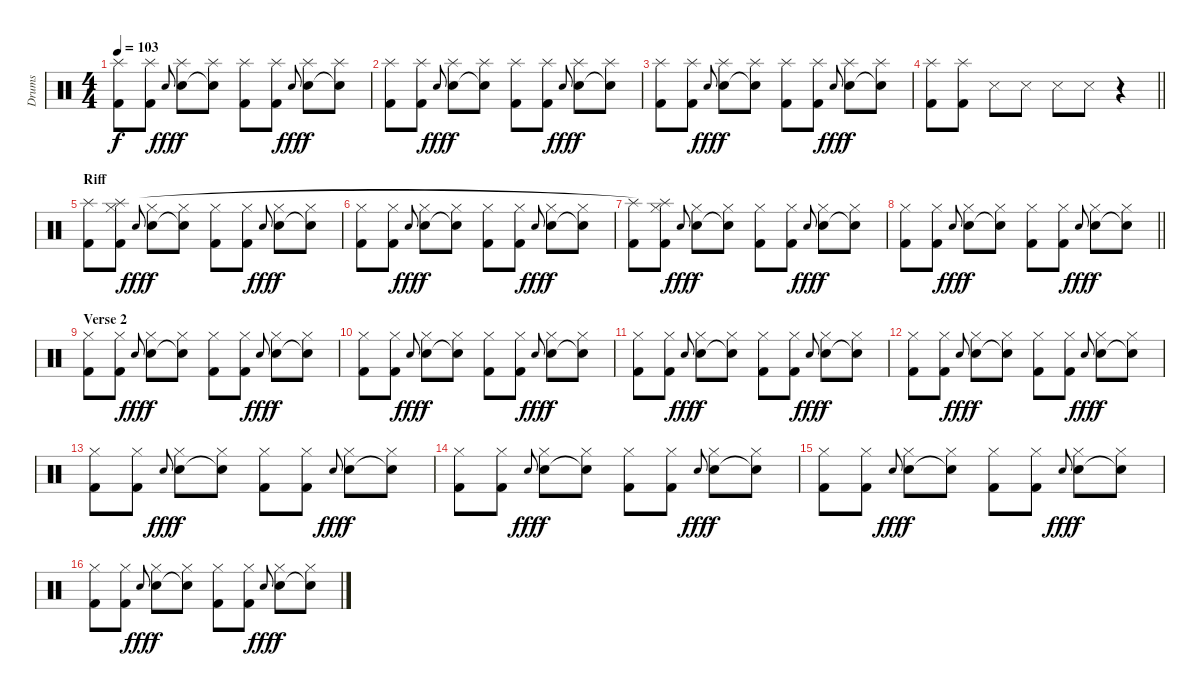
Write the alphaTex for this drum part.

\track ("Drums" "Drums") {instrument percussion}
\staff {score}
\articulation defaults
\ts (4 4)
\tempo 103
\clef neutral
\ks c
("Kick (hit) 2" "Splash (hit)").8{dy f} ("Kick (hit) 2" "Splash (hit)").8 "Snare (hit) 2"{h}.8{gr onbeat dy fff} ("Snare (hit) 2" "Splash (hit)").8{dy f} ("Snare (hit) 2"{t} "Splash (hit)").8 ("Kick (hit) 2" "Splash (hit)").8 ("Kick (hit) 2" "Splash (hit)").8 "Snare (hit) 2"{h}.8{gr onbeat dy fff} ("Snare (hit) 2" "Splash (hit)").8{dy f} ("Snare (hit) 2"{t} "Splash (hit)").8 |
("Kick (hit) 2" "Splash (hit)").8 ("Kick (hit) 2" "Splash (hit)").8 "Snare (hit) 2"{h}.8{gr onbeat dy fff} ("Snare (hit) 2" "Splash (hit)").8{dy f} ("Snare (hit) 2"{t} "Splash (hit)").8 ("Kick (hit) 2" "Splash (hit)").8 ("Kick (hit) 2" "Splash (hit)").8 "Snare (hit) 2"{h}.8{gr onbeat dy fff} ("Snare (hit) 2" "Splash (hit)").8{dy f} ("Snare (hit) 2"{t} "Splash (hit)").8 |
("Kick (hit) 2" "Splash (hit)").8 ("Kick (hit) 2" "Splash (hit)").8 "Snare (hit) 2"{h}.8{gr onbeat dy fff} ("Snare (hit) 2" "Splash (hit)").8{dy f} ("Snare (hit) 2"{t} "Splash (hit)").8 ("Kick (hit) 2" "Splash (hit)").8 ("Kick (hit) 2" "Splash (hit)").8 "Snare (hit) 2"{h}.8{gr onbeat dy fff} ("Snare (hit) 2" "Splash (hit)").8{dy f} ("Snare (hit) 2"{t} "Splash (hit)").8 |
\barLineRight lightlight
("Kick (hit) 2" "Splash (hit)").8 ("Kick (hit) 2" "Splash (hit)").8 "Metronome (hit)".8 "Metronome (hit)".8 "Metronome (hit)".8 "Metronome (hit)".8 r.4 |
\section ("" "Riff")
("Kick (hit) 2" "Splash (hit)").8 ("Kick (hit) 2" "Hi-Hat (closed)" "Splash (hit)").8 "Snare (hit) 2"{h}.8{gr onbeat dy fff} ("Snare (hit) 2" "Hi-Hat (closed)").8{dy f} ("Snare (hit) 2"{t} "Hi-Hat (closed)").8 ("Kick (hit) 2" "Hi-Hat (closed)").8 ("Kick (hit) 2" "Hi-Hat (closed)").8 "Snare (hit) 2"{h}.8{gr onbeat dy fff} ("Snare (hit) 2" "Hi-Hat (closed)").8{dy f} ("Snare (hit) 2"{t} "Hi-Hat (closed)").8 |
("Kick (hit) 2" "Hi-Hat (closed)").8 ("Kick (hit) 2" "Hi-Hat (closed)").8 "Snare (hit) 2"{h}.8{gr onbeat dy fff} ("Snare (hit) 2" "Hi-Hat (closed)").8{dy f} ("Snare (hit) 2"{t} "Hi-Hat (closed)").8 ("Kick (hit) 2" "Hi-Hat (closed)").8 ("Kick (hit) 2" "Hi-Hat (closed)").8 "Snare (hit) 2"{h}.8{gr onbeat dy fff} ("Snare (hit) 2" "Hi-Hat (closed)").8{dy f} ("Snare (hit) 2"{t} "Hi-Hat (closed)").8 |
("Kick (hit) 2" "Splash (hit)").8 ("Kick (hit) 2" "Hi-Hat (closed)" "Splash (hit)"{t}).8 "Snare (hit) 2"{h}.8{gr onbeat dy fff} ("Snare (hit) 2" "Hi-Hat (closed)").8{dy f} ("Snare (hit) 2"{t} "Hi-Hat (closed)").8 ("Kick (hit) 2" "Hi-Hat (closed)").8 ("Kick (hit) 2" "Hi-Hat (closed)").8 "Snare (hit) 2"{h}.8{gr onbeat dy fff} ("Snare (hit) 2" "Hi-Hat (closed)").8{dy f} ("Snare (hit) 2"{t} "Hi-Hat (closed)").8 |
\barLineRight lightlight
("Kick (hit) 2" "Hi-Hat (closed)").8 ("Kick (hit) 2" "Hi-Hat (closed)").8 "Snare (hit) 2"{h}.8{gr onbeat dy fff} ("Snare (hit) 2" "Hi-Hat (closed)").8{dy f} ("Snare (hit) 2"{t} "Hi-Hat (closed)").8 ("Kick (hit) 2" "Hi-Hat (closed)").8 ("Kick (hit) 2" "Hi-Hat (closed)").8 "Snare (hit) 2"{h}.8{gr onbeat dy fff} ("Snare (hit) 2" "Hi-Hat (closed)").8{dy f} ("Snare (hit) 2"{t} "Hi-Hat (closed)").8 |
\section ("" "Verse 2")
("Kick (hit) 2" "Hi-Hat (closed)").8 ("Kick (hit) 2" "Hi-Hat (closed)").8 "Snare (hit) 2"{h}.8{gr onbeat dy fff} ("Snare (hit) 2" "Hi-Hat (closed)").8{dy f} ("Snare (hit) 2"{t} "Hi-Hat (closed)").8 ("Kick (hit) 2" "Hi-Hat (closed)").8 ("Kick (hit) 2" "Hi-Hat (closed)").8 "Snare (hit) 2"{h}.8{gr onbeat dy fff} ("Snare (hit) 2" "Hi-Hat (closed)").8{dy f} ("Snare (hit) 2"{t} "Hi-Hat (closed)").8 |
("Kick (hit) 2" "Hi-Hat (closed)").8 ("Kick (hit) 2" "Hi-Hat (closed)").8 "Snare (hit) 2"{h}.8{gr onbeat dy fff} ("Snare (hit) 2" "Hi-Hat (closed)").8{dy f} ("Snare (hit) 2"{t} "Hi-Hat (closed)").8 ("Kick (hit) 2" "Hi-Hat (closed)").8 ("Kick (hit) 2" "Hi-Hat (closed)").8 "Snare (hit) 2"{h}.8{gr onbeat dy fff} ("Snare (hit) 2" "Hi-Hat (closed)").8{dy f} ("Snare (hit) 2"{t} "Hi-Hat (closed)").8 |
("Kick (hit) 2" "Hi-Hat (closed)").8 ("Kick (hit) 2" "Hi-Hat (closed)").8 "Snare (hit) 2"{h}.8{gr onbeat dy fff} ("Snare (hit) 2" "Hi-Hat (closed)").8{dy f} ("Snare (hit) 2"{t} "Hi-Hat (closed)").8 ("Kick (hit) 2" "Hi-Hat (closed)").8 ("Kick (hit) 2" "Hi-Hat (closed)").8 "Snare (hit) 2"{h}.8{gr onbeat dy fff} ("Snare (hit) 2" "Hi-Hat (closed)").8{dy f} ("Snare (hit) 2"{t} "Hi-Hat (closed)").8 |
("Kick (hit) 2" "Hi-Hat (closed)").8 ("Kick (hit) 2" "Hi-Hat (closed)").8 "Snare (hit) 2"{h}.8{gr onbeat dy fff} ("Snare (hit) 2" "Hi-Hat (closed)").8{dy f} ("Snare (hit) 2"{t} "Hi-Hat (closed)").8 ("Kick (hit) 2" "Hi-Hat (closed)").8 ("Kick (hit) 2" "Hi-Hat (closed)").8 "Snare (hit) 2"{h}.8{gr onbeat dy fff} ("Snare (hit) 2" "Hi-Hat (closed)").8{dy f} ("Snare (hit) 2"{t} "Hi-Hat (closed)").8 |
("Kick (hit) 2" "Hi-Hat (closed)").8 ("Kick (hit) 2" "Hi-Hat (closed)").8 "Snare (hit) 2"{h}.8{gr onbeat dy fff} ("Snare (hit) 2" "Hi-Hat (closed)").8{dy f} ("Snare (hit) 2"{t} "Hi-Hat (closed)").8 ("Kick (hit) 2" "Hi-Hat (closed)").8 ("Kick (hit) 2" "Hi-Hat (closed)").8 "Snare (hit) 2"{h}.8{gr onbeat dy fff} ("Snare (hit) 2" "Hi-Hat (closed)").8{dy f} ("Snare (hit) 2"{t} "Hi-Hat (closed)").8 |
("Kick (hit) 2" "Hi-Hat (closed)").8 ("Kick (hit) 2" "Hi-Hat (closed)").8 "Snare (hit) 2"{h}.8{gr onbeat dy fff} ("Snare (hit) 2" "Hi-Hat (closed)").8{dy f} ("Snare (hit) 2"{t} "Hi-Hat (closed)").8 ("Kick (hit) 2" "Hi-Hat (closed)").8 ("Kick (hit) 2" "Hi-Hat (closed)").8 "Snare (hit) 2"{h}.8{gr onbeat dy fff} ("Snare (hit) 2" "Hi-Hat (closed)").8{dy f} ("Snare (hit) 2"{t} "Hi-Hat (closed)").8 |
("Kick (hit) 2" "Hi-Hat (closed)").8 ("Kick (hit) 2" "Hi-Hat (closed)").8 "Snare (hit) 2"{h}.8{gr onbeat dy fff} ("Snare (hit) 2" "Hi-Hat (closed)").8{dy f} ("Snare (hit) 2"{t} "Hi-Hat (closed)").8 ("Kick (hit) 2" "Hi-Hat (closed)").8 ("Kick (hit) 2" "Hi-Hat (closed)").8 "Snare (hit) 2"{h}.8{gr onbeat dy fff} ("Snare (hit) 2" "Hi-Hat (closed)").8{dy f} ("Snare (hit) 2"{t} "Hi-Hat (closed)").8 |
("Kick (hit) 2" "Hi-Hat (closed)").8 ("Kick (hit) 2" "Hi-Hat (closed)").8 "Snare (hit) 2"{h}.8{gr onbeat dy fff} ("Snare (hit) 2" "Hi-Hat (closed)").8{dy f} ("Snare (hit) 2"{t} "Hi-Hat (closed)").8 ("Kick (hit) 2" "Hi-Hat (closed)").8 ("Kick (hit) 2" "Hi-Hat (closed)").8 "Snare (hit) 2"{h}.8{gr onbeat dy fff} ("Snare (hit) 2" "Hi-Hat (closed)").8{dy f} ("Snare (hit) 2"{t} "Hi-Hat (closed)").8
